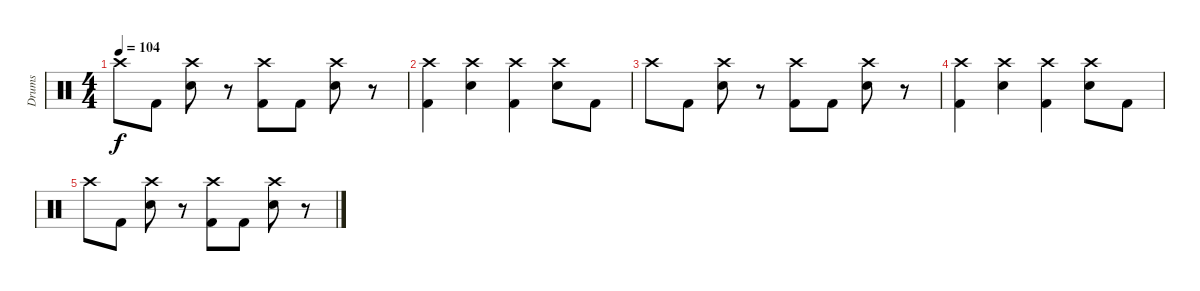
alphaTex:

\track ("Drums" "Drums") {instrument percussion}
\staff {score}
\articulation defaults
\ts (4 4)
\tempo 104
\clef neutral
\ks c "Crash high (hit)".8{dy f} "Kick (hit) 2".8
("Crash high (hit)" "Electric Snare (hit)").8 r.8 ("Crash high (hit)" "Kick (hit) 2").8 "Kick (hit) 2".8 ("Crash high (hit)" "Electric Snare (hit)").8 r.8 |
("Crash high (hit)" "Kick (hit) 2").4 ("Crash high (hit)" "Electric Snare (hit)").4 ("Crash high (hit)" "Kick (hit) 2").4 ("Crash high (hit)" "Electric Snare (hit)").8 "Kick (hit) 2".8 |
"Crash high (hit)".8 "Kick (hit) 2".8 ("Crash high (hit)" "Electric Snare (hit)").8 r.8 ("Crash high (hit)" "Kick (hit) 2").8 "Kick (hit) 2".8 ("Crash high (hit)" "Electric Snare (hit)").8 r.8 |
("Crash high (hit)" "Kick (hit) 2").4 ("Crash high (hit)" "Electric Snare (hit)").4 ("Crash high (hit)" "Kick (hit) 2").4 ("Crash high (hit)" "Electric Snare (hit)").8 "Kick (hit) 2".8 |
"Crash high (hit)".8 "Kick (hit) 2".8 ("Crash high (hit)" "Electric Snare (hit)").8 r.8 ("Crash high (hit)" "Kick (hit) 2").8 "Kick (hit) 2".8 ("Crash high (hit)" "Electric Snare (hit)").8 r.8
